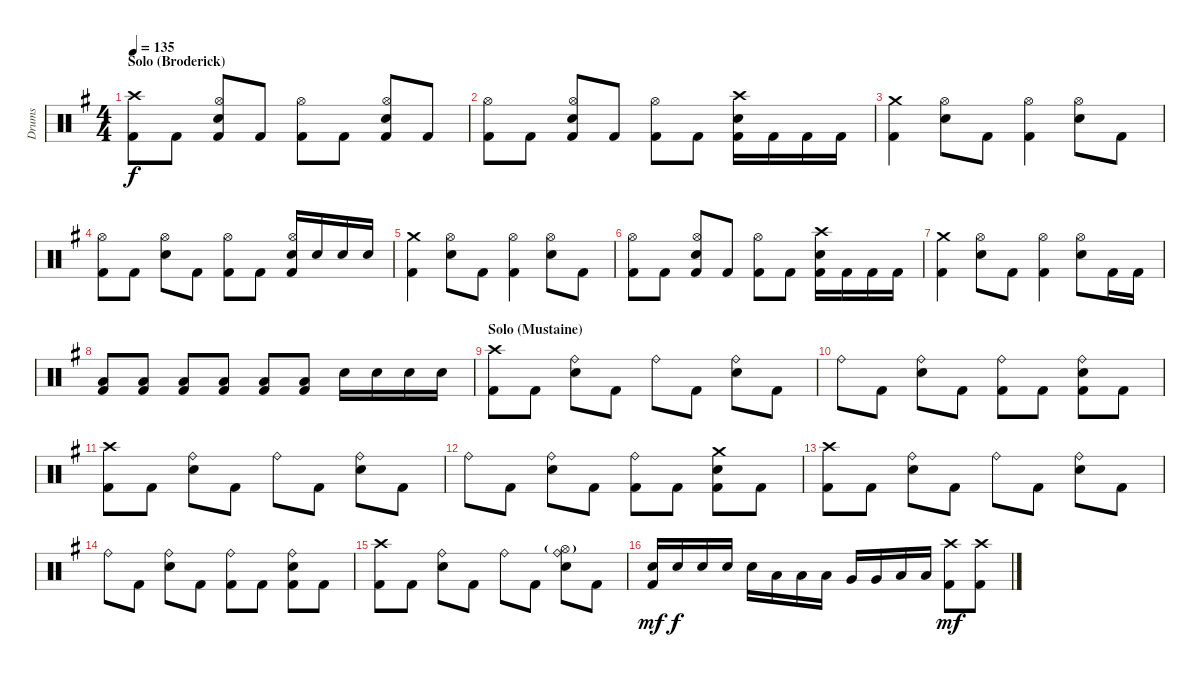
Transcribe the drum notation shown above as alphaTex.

\track ("Drums" "Drums") {instrument percussion}
\staff {score}
\articulation defaults
\ts (4 4)
\section ("" "Solo (Broderick)")
\tempo 135
\clef neutral
\ks eminor
("Crash high (hit)" "Kick (hit) 2").8{dy f} "Kick (hit) 2".8 ("Hi-Hat (open)" "Snare (hit) 2" "Kick (hit) 2").8 "Kick (hit) 2".8 ("Hi-Hat (open)" "Kick (hit) 2").8 "Kick (hit) 2".8 ("Hi-Hat (open)" "Snare (hit) 2" "Kick (hit) 2").8 "Kick (hit) 2".8 |
("Hi-Hat (open)" "Kick (hit) 2").8 "Kick (hit) 2".8 ("Hi-Hat (open)" "Snare (hit) 2" "Kick (hit) 2").8 "Kick (hit) 2".8 ("Hi-Hat (open)" "Kick (hit) 2").8 "Kick (hit) 2".8 ("Crash high (hit)" "Snare (hit) 2" "Kick (hit) 2").16 "Kick (hit) 2".16 "Kick (hit) 2".16 "Kick (hit) 2".16 |
("Crash medium (hit)" "Kick (hit) 2").4 ("Hi-Hat (open)" "Snare (hit) 2").8 "Kick (hit) 2".8 ("Hi-Hat (open)" "Kick (hit) 2").4 ("Hi-Hat (open)" "Snare (hit) 2").8 "Kick (hit) 2".8 |
("Hi-Hat (open)" "Kick (hit) 2").8 "Kick (hit) 2".8 ("Hi-Hat (open)" "Snare (hit) 2").8 "Kick (hit) 2".8 ("Hi-Hat (open)" "Kick (hit) 2").8 "Kick (hit) 2".8 ("Hi-Hat (open)" "Snare (hit) 2" "Kick (hit) 2").16 "Snare (hit) 2".16 "Snare (hit) 2".16 "Snare (hit) 2".16 |
("Crash medium (hit)" "Kick (hit) 2").4 ("Hi-Hat (open)" "Snare (hit) 2").8 "Kick (hit) 2".8 ("Hi-Hat (open)" "Kick (hit) 2").4 ("Hi-Hat (open)" "Snare (hit) 2").8 "Kick (hit) 2".8 |
("Hi-Hat (open)" "Kick (hit) 2").8 "Kick (hit) 2".8 ("Hi-Hat (open)" "Snare (hit) 2" "Kick (hit) 2").8 "Kick (hit) 2".8 ("Hi-Hat (open)" "Kick (hit) 2").8 "Kick (hit) 2".8 ("Crash high (hit)" "Snare (hit) 2" "Kick (hit) 2").16 "Kick (hit) 2".16 "Kick (hit) 2".16 "Kick (hit) 2".16 |
("Crash medium (hit)" "Kick (hit) 2").4 ("Hi-Hat (open)" "Snare (hit) 2").8 "Kick (hit) 2".8 ("Hi-Hat (open)" "Kick (hit) 2").4 ("Hi-Hat (open)" "Snare (hit) 2").8 "Kick (hit) 2".16 "Kick (hit) 2".16 |
("Low Floor Tom (hit)" "Kick (hit) 2").8 ("Low Floor Tom (hit)" "Kick (hit) 2").8 ("Low Floor Tom (hit)" "Kick (hit) 2").8 ("Low Floor Tom (hit)" "Kick (hit) 2").8 ("Low Floor Tom (hit)" "Kick (hit) 2").8 ("Low Floor Tom (hit)" "Kick (hit) 2").8 "Snare (hit) 2".16 "Snare (hit) 2".16 "Snare (hit) 2".16 "Snare (hit) 2".16 |
\section ("" "Solo (Mustaine)")
("Crash high (hit)" "Kick (hit) 2").8 "Kick (hit) 2".8 ("Ride (bell)" "Snare (hit) 2").8 "Kick (hit) 2".8 "Ride (bell)".8 "Kick (hit) 2".8 ("Ride (bell)" "Snare (hit) 2").8 "Kick (hit) 2".8 |
"Ride (bell)".8 "Kick (hit) 2".8 ("Ride (bell)" "Snare (hit) 2").8 "Kick (hit) 2".8 ("Ride (bell)" "Kick (hit) 2").8 "Kick (hit) 2".8 ("Ride (bell)" "Snare (hit) 2" "Kick (hit) 2").8 "Kick (hit) 2".8 |
("Crash high (hit)" "Kick (hit) 2").8 "Kick (hit) 2".8 ("Ride (bell)" "Snare (hit) 2").8 "Kick (hit) 2".8 "Ride (bell)".8 "Kick (hit) 2".8 ("Ride (bell)" "Snare (hit) 2").8 "Kick (hit) 2".8 |
"Ride (bell)".8 "Kick (hit) 2".8 ("Ride (bell)" "Snare (hit) 2").8 "Kick (hit) 2".8 ("Ride (bell)" "Kick (hit) 2").8 "Kick (hit) 2".8 ("Crash medium (hit)" "Snare (hit) 2" "Kick (hit) 2").8 "Kick (hit) 2".8 |
("Crash high (hit)" "Kick (hit) 2").8 "Kick (hit) 2".8 ("Ride (bell)" "Snare (hit) 2").8 "Kick (hit) 2".8 "Ride (bell)".8 "Kick (hit) 2".8 ("Ride (bell)" "Snare (hit) 2").8 "Kick (hit) 2".8 |
"Ride (bell)".8 "Kick (hit) 2".8 ("Ride (bell)" "Snare (hit) 2").8 "Kick (hit) 2".8 ("Ride (bell)" "Kick (hit) 2").8 "Kick (hit) 2".8 ("Ride (bell)" "Snare (hit) 2" "Kick (hit) 2").8 "Kick (hit) 2".8 |
("Crash high (hit)" "Kick (hit) 2").8 "Kick (hit) 2".8 ("Ride (bell)" "Snare (hit) 2").8 "Kick (hit) 2".8 "Ride (bell)".8 "Kick (hit) 2".8 ("Hi-Hat (open)"{g} "Ride (bell)" "Snare (hit) 2").8 "Kick (hit) 2".8 |
("Snare (hit) 2" "Kick (hit) 2").16{dy mf} "Snare (hit) 2".16{dy f} "Snare (hit) 2".16 "Snare (hit) 2".16 "Snare (hit) 2".16 "Low Tom (hit)".16 "Low Tom (hit)".16 "Low Tom (hit)".16 "Very Low Tom (hit)".16 "Very Low Tom (hit)".16 "Low Floor Tom (hit)".16 "Low Floor Tom (hit)".16 ("Crash high (hit)" "Kick (hit) 2").8{dy mf} ("Crash high (hit)" "Kick (hit) 2").8
